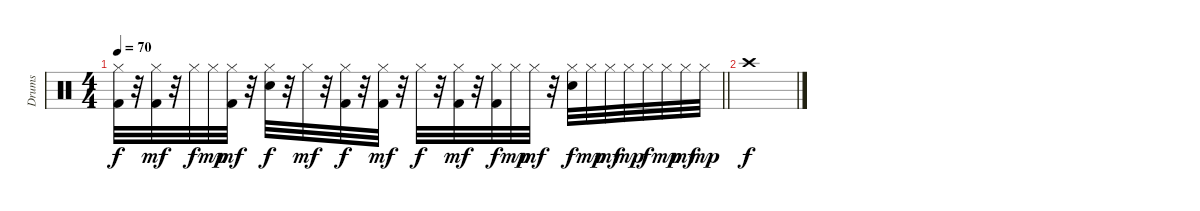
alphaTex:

\track ("Drums" "Drums") {instrument percussion}
\staff
\articulation defaults
\ts (4 4)
\tempo 70
\clef neutral
\barLineRight lightlight
\ks c
("Hi-Hat (closed)" "Kick (hit) 2").32{dy f} r.32 ("Hi-Hat (closed)" "Kick (hit) 2").32{dy mf} r.32 "Hi-Hat (closed)".32{dy f} "Hi-Hat (closed)".32{dy mp} ("Hi-Hat (closed)" "Kick (hit) 2").32{dy mf} r.32 ("Hi-Hat (closed)" "Electric Snare (hit)").32{dy f} r.32 "Hi-Hat (closed)".32{dy mf} r.32 ("Hi-Hat (closed)" "Kick (hit) 2").32{dy f} r.32 ("Hi-Hat (closed)" "Kick (hit) 2").32{dy mf} r.32 "Hi-Hat (closed)".32{dy f} r.32 ("Hi-Hat (closed)" "Kick (hit) 2").32{dy mf} r.32 ("Hi-Hat (closed)" "Kick (hit) 2").32{dy f} "Hi-Hat (closed)".32{dy mp} "Hi-Hat (closed)".32{dy mf} r.32 ("Hi-Hat (closed)" "Electric Snare (hit)").32{dy f} "Hi-Hat (closed)".32{dy mp} "Hi-Hat (closed)".32{dy mf} "Hi-Hat (closed)".32{dy mp} "Hi-Hat (closed)".32{dy f} "Hi-Hat (closed)".32{dy mp} "Hi-Hat (closed)".32{dy mf} "Hi-Hat (closed)".32{dy mp} |
"Crash high (hit)".1{dy f}
